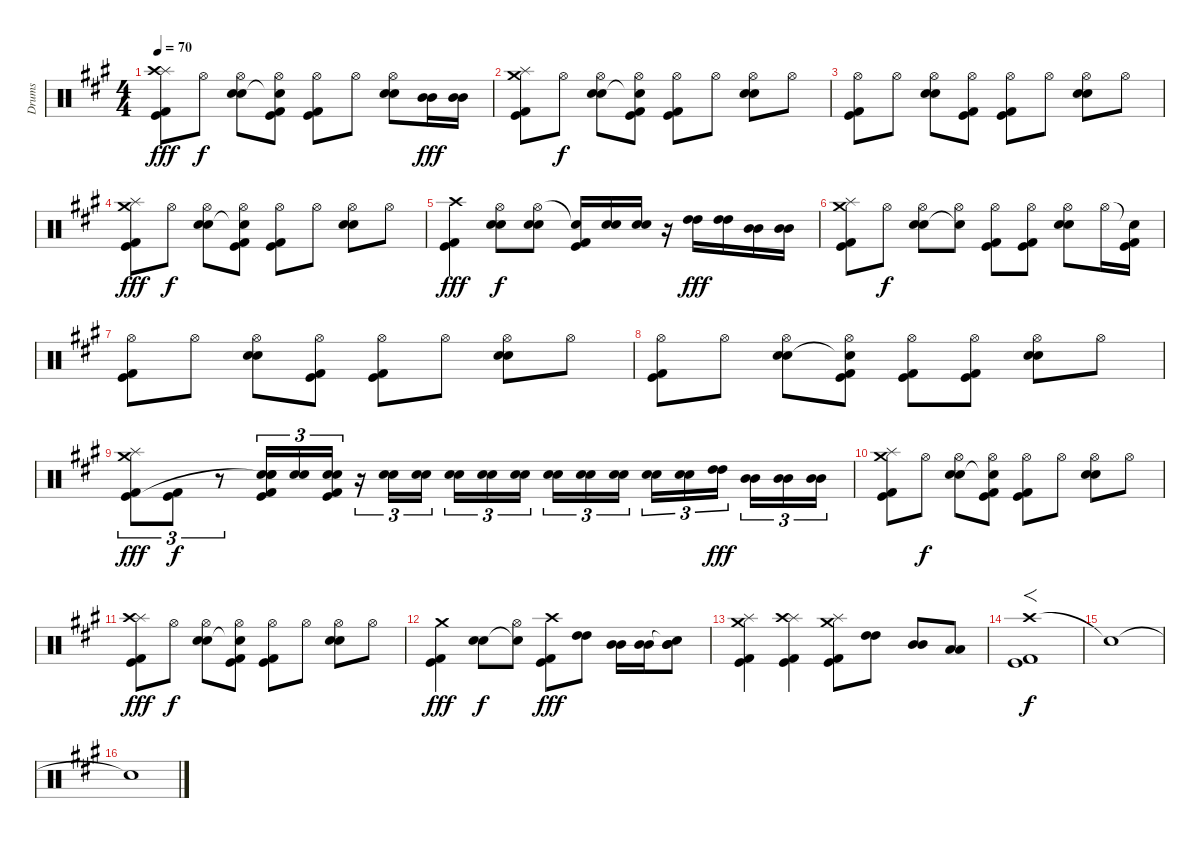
\track ("Drums" "Drums") {instrument percussion}
\staff {score}
\articulation defaults
\ts (4 4)
\tempo 70
\clef neutral
\ks a
("Splash (hit)" "Crash high (hit)" "Kick (hit)" "Kick (hit) 2").8{dy fff} "Hi-Hat (open)".8{dy f} ("Hi-Hat (open)" "Electric Snare (hit)" "Snare (hit) 2").8 ("Hi-Hat (open)" "Snare (hit)"{t} "Kick (hit)" "Kick (hit) 2").8 ("Hi-Hat (open)" "Kick (hit)" "Kick (hit) 2").8 "Hi-Hat (open)".8 ("Hi-Hat (open)" "Electric Snare (hit)" "Snare (hit) 2").8 ("Mid Tom (hit)" "Mid Tom (hit)").16{dy fff} ("Mid Tom (hit)" "Mid Tom (hit)").16 |
("Splash (hit)" "Crash medium (hit)" "Kick (hit)" "Kick (hit) 2").8 "Hi-Hat (open)".8{dy f} ("Hi-Hat (open)" "Electric Snare (hit)" "Snare (hit) 2").8 ("Hi-Hat (open)" "Snare (hit)"{t} "Kick (hit)" "Kick (hit) 2").8 ("Hi-Hat (open)" "Kick (hit)" "Kick (hit) 2").8 "Hi-Hat (open)".8 ("Hi-Hat (open)" "Electric Snare (hit)" "Snare (hit) 2").8 "Hi-Hat (open)".8 |
("Hi-Hat (open)" "Kick (hit)" "Kick (hit) 2").8 "Hi-Hat (open)".8 ("Hi-Hat (open)" "Electric Snare (hit)" "Snare (hit) 2").8 ("Hi-Hat (open)" "Kick (hit)" "Kick (hit) 2").8 ("Hi-Hat (open)" "Kick (hit)" "Kick (hit) 2").8 "Hi-Hat (open)".8 ("Hi-Hat (open)" "Electric Snare (hit)" "Snare (hit) 2").8 "Hi-Hat (open)".8 |
("Splash (hit)" "Crash medium (hit)" "Kick (hit)" "Kick (hit) 2").8{dy fff} "Hi-Hat (open)".8{dy f} ("Hi-Hat (open)" "Electric Snare (hit)" "Snare (hit) 2").8 ("Hi-Hat (open)" "Snare (hit)"{t} "Kick (hit)" "Kick (hit) 2").8 ("Hi-Hat (open)" "Kick (hit)" "Kick (hit) 2").8 "Hi-Hat (open)".8 ("Hi-Hat (open)" "Electric Snare (hit)" "Snare (hit) 2").8 "Hi-Hat (open)".8 |
("Crash high (hit)" "Kick (hit)" "Kick (hit) 2").4{dy fff} ("Hi-Hat (open)" "Electric Snare (hit)" "Snare (hit) 2").8{dy f} ("Hi-Hat (open)" "Electric Snare (hit)" "Snare (hit) 2").8 ("Snare (hit)"{t} "Kick (hit)" "Kick (hit) 2").16 ("Electric Snare (hit)" "Snare (hit) 2").16 ("Electric Snare (hit)" "Snare (hit) 2").16 r.16 ("High Tom (hit)" "High Tom (hit)").16{dy fff} ("High Tom (hit)" "High Tom (hit)").16 ("Mid Tom (hit)" "Mid Tom (hit)").16 ("Mid Tom (hit)" "Mid Tom (hit)").16 |
("Splash (hit)" "Crash medium (hit)" "Kick (hit)" "Kick (hit) 2").8 "Hi-Hat (open)".8{dy f} ("Hi-Hat (open)" "Electric Snare (hit)" "Snare (hit) 2").8 ("Hi-Hat (open)" "Snare (hit)"{t}).8 ("Hi-Hat (open)" "Kick (hit)" "Kick (hit) 2").8 ("Hi-Hat (open)" "Kick (hit)" "Kick (hit) 2").8 ("Hi-Hat (open)" "Electric Snare (hit)" "Snare (hit) 2").8 "Hi-Hat (open)".16 ("Snare (hit)"{t} "Kick (hit)" "Kick (hit) 2").16 |
("Hi-Hat (open)" "Kick (hit)" "Kick (hit) 2").8 "Hi-Hat (open)".8 ("Hi-Hat (open)" "Electric Snare (hit)" "Snare (hit) 2").8 ("Hi-Hat (open)" "Kick (hit)" "Kick (hit) 2").8 ("Hi-Hat (open)" "Kick (hit)" "Kick (hit) 2").8 "Hi-Hat (open)".8 ("Hi-Hat (open)" "Electric Snare (hit)" "Snare (hit) 2").8 "Hi-Hat (open)".8 |
("Hi-Hat (open)" "Kick (hit)" "Kick (hit) 2").8 "Hi-Hat (open)".8 ("Hi-Hat (open)" "Electric Snare (hit)" "Snare (hit) 2").8 ("Hi-Hat (open)" "Snare (hit)"{t} "Kick (hit)" "Kick (hit) 2").8 ("Hi-Hat (open)" "Kick (hit)" "Kick (hit) 2").8 ("Hi-Hat (open)" "Kick (hit)" "Kick (hit) 2").8 ("Hi-Hat (open)" "Electric Snare (hit)" "Snare (hit) 2").8 "Hi-Hat (open)".8 |
("Splash (hit)" "Crash medium (hit)" "Kick (hit)" "Kick (hit) 2").8{tu (3 2) dy fff} ("Kick (hit)" "Kick (hit) 2").8{tu (3 2) dy f} r.8{tu (3 2)} ("Electric Snare (hit)" "Snare (hit) 2" "Snare (hit)"{t} "Kick (hit)" "Kick (hit) 2").16{tu (3 2)} ("Electric Snare (hit)" "Snare (hit) 2").16{tu (3 2)} ("Electric Snare (hit)" "Snare (hit) 2" "Kick (hit)" "Kick (hit) 2").16{tu (3 2)} r.16{tu (3 2)} ("Electric Snare (hit)" "Snare (hit) 2").16{tu (3 2)} ("Electric Snare (hit)" "Snare (hit) 2").16{tu (3 2)} ("Electric Snare (hit)" "Snare (hit) 2").16{tu (3 2)} ("Electric Snare (hit)" "Snare (hit) 2").16{tu (3 2)} ("Electric Snare (hit)" "Snare (hit) 2").16{tu (3 2)} ("Electric Snare (hit)" "Snare (hit) 2").16{tu (3 2)} ("Electric Snare (hit)" "Snare (hit) 2").16{tu (3 2)} ("Electric Snare (hit)" "Snare (hit) 2").16{tu (3 2)} ("Electric Snare (hit)" "Snare (hit) 2").16{tu (3 2)} ("Electric Snare (hit)" "Snare (hit) 2").16{tu (3 2)} ("High Tom (hit)" "High Tom (hit)").16{tu (3 2) dy fff} ("Mid Tom (hit)" "Mid Tom (hit)").16{tu (3 2)} ("Mid Tom (hit)" "Mid Tom (hit)").16{tu (3 2)} ("Mid Tom (hit)" "Mid Tom (hit)").16{tu (3 2)} |
("Splash (hit)" "Crash medium (hit)" "Kick (hit)" "Kick (hit) 2").8 "Hi-Hat (open)".8{dy f} ("Hi-Hat (open)" "Electric Snare (hit)" "Snare (hit) 2").8 ("Hi-Hat (open)" "Snare (hit)"{t} "Kick (hit)" "Kick (hit) 2").8 ("Hi-Hat (open)" "Kick (hit)" "Kick (hit) 2").8 "Hi-Hat (open)".8 ("Hi-Hat (open)" "Electric Snare (hit)" "Snare (hit) 2").8 "Hi-Hat (open)".8 |
("Splash (hit)" "Crash high (hit)" "Kick (hit)" "Kick (hit) 2").8{dy fff} "Hi-Hat (open)".8{dy f} ("Hi-Hat (open)" "Electric Snare (hit)" "Snare (hit) 2").8 ("Hi-Hat (open)" "Snare (hit)"{t} "Kick (hit)" "Kick (hit) 2").8 ("Hi-Hat (open)" "Kick (hit)" "Kick (hit) 2").8 "Hi-Hat (open)".8 ("Hi-Hat (open)" "Electric Snare (hit)" "Snare (hit) 2").8 "Hi-Hat (open)".8 |
("Crash medium (hit)" "Kick (hit)" "Kick (hit) 2").4{dy fff} ("Electric Snare (hit)" "Snare (hit) 2").8{dy f} ("Hi-Hat (open)" "Snare (hit)"{t}).8 ("Crash high (hit)" "Kick (hit)" "Kick (hit) 2").8{dy fff} ("High Tom (hit)" "High Tom (hit)").8 ("Mid Tom (hit)" "Mid Tom (hit)").16 ("Mid Tom (hit)" "Mid Tom (hit)").16 ("Snare (hit)"{t} "Mid Tom (hit)" "Mid Tom (hit)").8 |
("Splash (hit)" "Crash medium (hit)" "Kick (hit)" "Kick (hit) 2").4 ("Splash (hit)" "Crash high (hit)" "Kick (hit)" "Kick (hit) 2").4 ("Splash (hit)" "Crash medium (hit)" "Kick (hit)" "Kick (hit) 2").8 ("High Tom (hit)" "High Tom (hit)").8 ("Mid Tom (hit)" "Mid Tom (hit)").8 ("Low Tom (hit)" "Low Tom (hit)").8 |
("Crash high (hit)"{tr (49 32)} "Kick (hit)" "Kick (hit) 2").1{f dy f} |
"Snare (hit)"{t}.1 |
"Snare (hit)"{t}.1{volume 0}
